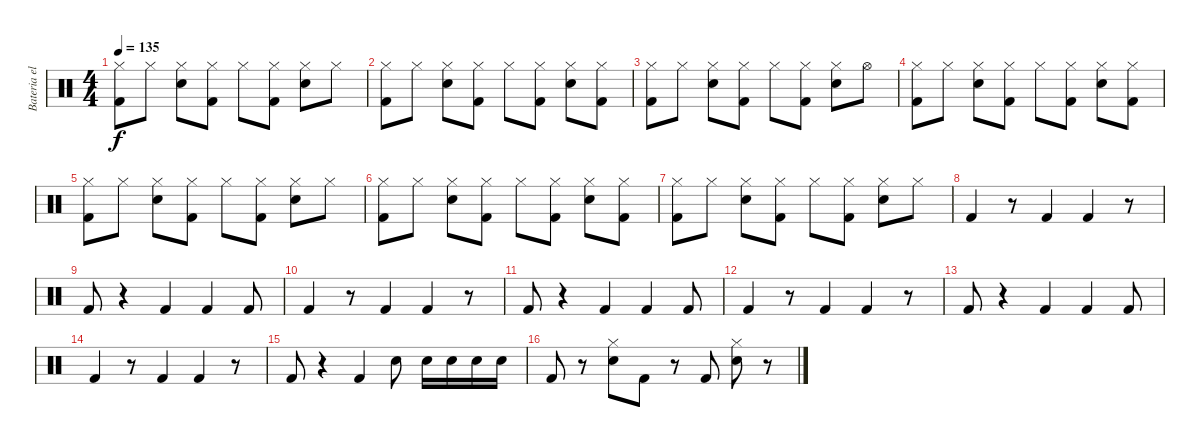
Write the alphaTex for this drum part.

\track ("Bateria electrica" "Bateria el") {instrument percussion}
\staff {score}
\articulation defaults
\ts (4 4)
\tempo 135
\clef neutral
\ks c
("Hi-Hat (closed)" "Kick (hit) 2").8{dy f} "Hi-Hat (closed)".8 ("Hi-Hat (closed)" "Snare (hit) 2").8 ("Hi-Hat (closed)" "Kick (hit) 2").8 "Hi-Hat (closed)".8 ("Hi-Hat (closed)" "Kick (hit) 2").8 ("Hi-Hat (closed)" "Snare (hit) 2").8 "Hi-Hat (closed)".8 |
("Hi-Hat (closed)" "Kick (hit) 2").8 "Hi-Hat (closed)".8 ("Hi-Hat (closed)" "Snare (hit) 2").8 ("Hi-Hat (closed)" "Kick (hit) 2").8 "Hi-Hat (closed)".8 ("Hi-Hat (closed)" "Kick (hit) 2").8 ("Hi-Hat (closed)" "Snare (hit) 2").8 ("Hi-Hat (closed)" "Kick (hit) 2").8 |
("Hi-Hat (closed)" "Kick (hit) 2").8 "Hi-Hat (closed)".8 ("Hi-Hat (closed)" "Snare (hit) 2").8 ("Hi-Hat (closed)" "Kick (hit) 2").8 "Hi-Hat (closed)".8 ("Hi-Hat (closed)" "Kick (hit) 2").8 ("Hi-Hat (closed)" "Snare (hit) 2").8 "Hi-Hat (open)".8 |
("Hi-Hat (closed)" "Kick (hit) 2").8 "Hi-Hat (closed)".8 ("Hi-Hat (closed)" "Snare (hit) 2").8 ("Hi-Hat (closed)" "Kick (hit) 2").8 "Hi-Hat (closed)".8 ("Hi-Hat (closed)" "Kick (hit) 2").8 ("Hi-Hat (closed)" "Snare (hit) 2").8 ("Hi-Hat (closed)" "Kick (hit) 2").8 |
("Hi-Hat (closed)" "Kick (hit) 2").8 "Hi-Hat (closed)".8 ("Hi-Hat (closed)" "Snare (hit) 2").8 ("Hi-Hat (closed)" "Kick (hit) 2").8 "Hi-Hat (closed)".8 ("Hi-Hat (closed)" "Kick (hit) 2").8 ("Hi-Hat (closed)" "Snare (hit) 2").8 "Hi-Hat (closed)".8 |
("Hi-Hat (closed)" "Kick (hit) 2").8 "Hi-Hat (closed)".8 ("Hi-Hat (closed)" "Snare (hit) 2").8 ("Hi-Hat (closed)" "Kick (hit) 2").8 "Hi-Hat (closed)".8 ("Hi-Hat (closed)" "Kick (hit) 2").8 ("Hi-Hat (closed)" "Snare (hit) 2").8 ("Hi-Hat (closed)" "Kick (hit) 2").8 |
("Hi-Hat (closed)" "Kick (hit) 2").8 "Hi-Hat (closed)".8 ("Hi-Hat (closed)" "Snare (hit) 2").8 ("Hi-Hat (closed)" "Kick (hit) 2").8 "Hi-Hat (closed)".8 ("Hi-Hat (closed)" "Kick (hit) 2").8 ("Hi-Hat (closed)" "Snare (hit) 2").8 "Hi-Hat (closed)".8 |
"Kick (hit) 2".4 r.8 "Kick (hit) 2".4 "Kick (hit) 2".4 r.8 |
"Kick (hit) 2".8 r.4 "Kick (hit) 2".4 "Kick (hit) 2".4 "Kick (hit) 2".8 |
"Kick (hit) 2".4 r.8 "Kick (hit) 2".4 "Kick (hit) 2".4 r.8 |
"Kick (hit) 2".8 r.4 "Kick (hit) 2".4 "Kick (hit) 2".4 "Kick (hit) 2".8 |
"Kick (hit) 2".4 r.8 "Kick (hit) 2".4 "Kick (hit) 2".4 r.8 |
"Kick (hit) 2".8 r.4 "Kick (hit) 2".4 "Kick (hit) 2".4 "Kick (hit) 2".8 |
"Kick (hit) 2".4 r.8 "Kick (hit) 2".4 "Kick (hit) 2".4 r.8 |
"Kick (hit) 2".8 r.4 "Kick (hit) 2".4 "Snare (hit) 2".8 "Snare (hit) 2".16 "Snare (hit) 2".16 "Snare (hit) 2".16 "Snare (hit) 2".16 |
"Kick (hit) 2".8 r.8 ("Hi-Hat (closed)" "Snare (hit) 2").8 "Kick (hit) 2".8 r.8 "Kick (hit) 2".8 ("Hi-Hat (closed)" "Snare (hit) 2").8 r.8
